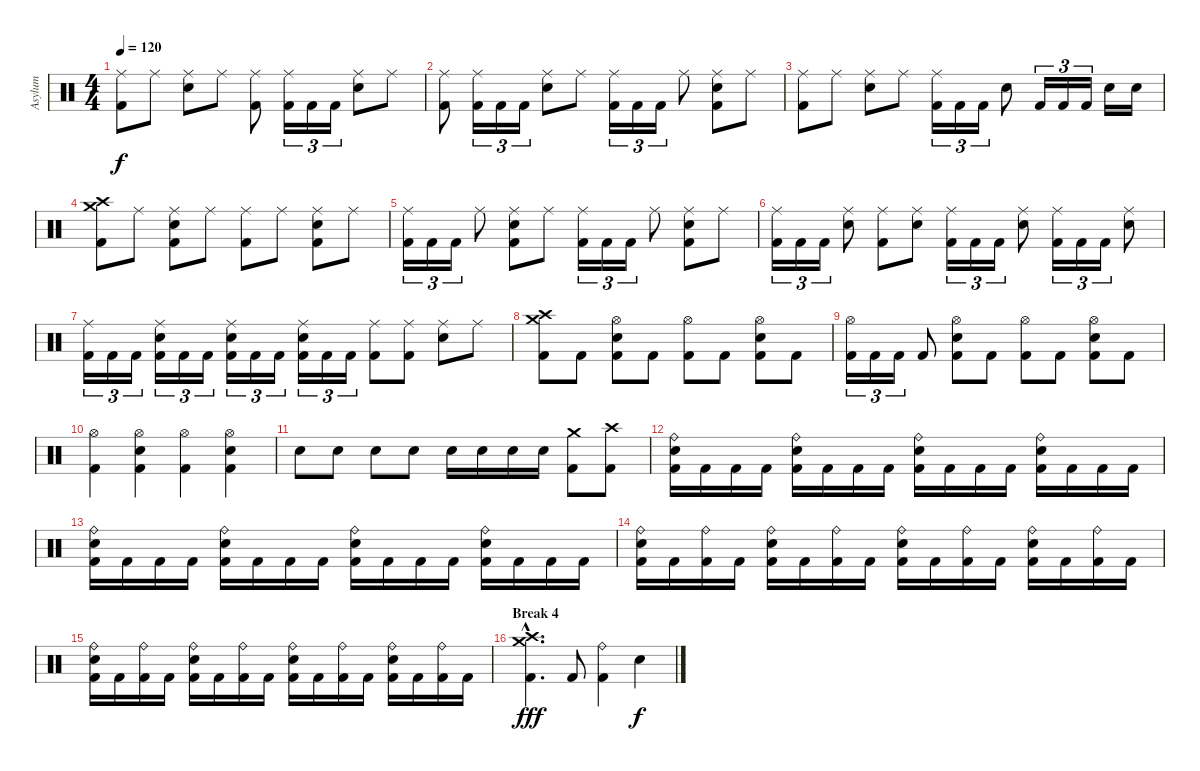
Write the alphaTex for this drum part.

\track ("Asylum" "Asylum") {instrument percussion}
\staff {score}
\articulation defaults
\ts (4 4)
\tempo 120
\clef neutral
\ks c
("Ride (middle)" "Kick (hit) 2").8{dy f} "Ride (middle)".8 ("Ride (middle)" "Electric Snare (hit)").8 "Ride (middle)".8 ("Ride (middle)" "Kick (hit) 2").8 ("Ride (middle)" "Kick (hit) 2").16{tu (3 2)} "Kick (hit) 2".16{tu (3 2)} "Kick (hit) 2".16{tu (3 2)} ("Ride (middle)" "Electric Snare (hit)").8 "Ride (middle)".8 |
("Ride (middle)" "Kick (hit) 2").8 ("Ride (middle)" "Kick (hit) 2").16{tu (3 2)} "Kick (hit) 2".16{tu (3 2)} "Kick (hit) 2".16{tu (3 2)} ("Ride (middle)" "Electric Snare (hit)").8 "Ride (middle)".8 ("Ride (middle)" "Kick (hit) 2").16{tu (3 2)} "Kick (hit) 2".16{tu (3 2)} "Kick (hit) 2".16{tu (3 2)} "Ride (middle)".8 ("Ride (middle)" "Electric Snare (hit)" "Kick (hit) 2").8 "Ride (middle)".8 |
("Ride (middle)" "Kick (hit) 2").8 "Ride (middle)".8 ("Ride (middle)" "Electric Snare (hit)").8 "Ride (middle)".8 ("Ride (middle)" "Kick (hit) 2").16{tu (3 2)} "Kick (hit) 2".16{tu (3 2)} "Kick (hit) 2".16{tu (3 2)} "Electric Snare (hit)".8 "Kick (hit) 2".16{tu (3 2)} "Kick (hit) 2".16{tu (3 2)} "Kick (hit) 2".16{tu (3 2)} "Electric Snare (hit)".16 "Electric Snare (hit)".16 |
("Crash high (hit)" "Crash medium (hit)" "Kick (hit) 2").8 "Ride (middle)".8 ("Ride (middle)" "Electric Snare (hit)" "Kick (hit) 2").8 "Ride (middle)".8 ("Ride (middle)" "Kick (hit) 2").8 "Ride (middle)".8 ("Ride (middle)" "Electric Snare (hit)" "Kick (hit) 2").8 "Ride (middle)".8 |
("Ride (middle)" "Kick (hit) 2").16{tu (3 2)} "Kick (hit) 2".16{tu (3 2)} "Kick (hit) 2".16{tu (3 2)} "Ride (middle)".8 ("Ride (middle)" "Electric Snare (hit)" "Kick (hit) 2").8 "Ride (middle)".8 ("Ride (middle)" "Kick (hit) 2").16{tu (3 2)} "Kick (hit) 2".16{tu (3 2)} "Kick (hit) 2".16{tu (3 2)} "Ride (middle)".8 ("Ride (middle)" "Electric Snare (hit)" "Kick (hit) 2").8 "Ride (middle)".8 |
("Ride (middle)" "Kick (hit) 2").16{tu (3 2)} "Kick (hit) 2".16{tu (3 2)} "Kick (hit) 2".16{tu (3 2)} ("Ride (middle)" "Electric Snare (hit)").8 ("Ride (middle)" "Kick (hit) 2").8 ("Ride (middle)" "Electric Snare (hit)").8 ("Ride (middle)" "Kick (hit) 2").16{tu (3 2)} "Kick (hit) 2".16{tu (3 2)} "Kick (hit) 2".16{tu (3 2)} ("Ride (middle)" "Electric Snare (hit)").8 ("Ride (middle)" "Kick (hit) 2").16{tu (3 2)} "Kick (hit) 2".16{tu (3 2)} "Kick (hit) 2".16{tu (3 2)} ("Ride (middle)" "Electric Snare (hit)").8 |
("Ride (middle)" "Kick (hit) 2").16{tu (3 2)} "Kick (hit) 2".16{tu (3 2)} "Kick (hit) 2".16{tu (3 2)} ("Ride (middle)" "Electric Snare (hit)" "Kick (hit) 2").16{tu (3 2)} "Kick (hit) 2".16{tu (3 2)} "Kick (hit) 2".16{tu (3 2)} ("Ride (middle)" "Electric Snare (hit)" "Kick (hit) 2").16{tu (3 2)} "Kick (hit) 2".16{tu (3 2)} "Kick (hit) 2".16{tu (3 2)} ("Ride (middle)" "Electric Snare (hit)" "Kick (hit) 2").16{tu (3 2)} "Kick (hit) 2".16{tu (3 2)} "Kick (hit) 2".16{tu (3 2)} ("Ride (middle)" "Kick (hit) 2").8 ("Ride (middle)" "Kick (hit) 2").8 ("Ride (middle)" "Electric Snare (hit)").8 "Ride (middle)".8 |
("Crash medium (hit)" "Crash high (hit)" "Kick (hit) 2").8 "Kick (hit) 2".8 ("Hi-Hat (open)" "Electric Snare (hit)" "Kick (hit) 2").8 "Kick (hit) 2".8 ("Hi-Hat (open)" "Kick (hit) 2").8 "Kick (hit) 2".8 ("Hi-Hat (open)" "Electric Snare (hit)" "Kick (hit) 2").8 "Kick (hit) 2".8 |
("Hi-Hat (open)" "Kick (hit) 2").16{tu (3 2)} "Kick (hit) 2".16{tu (3 2)} "Kick (hit) 2".16{tu (3 2)} "Kick (hit) 2".8 ("Hi-Hat (open)" "Electric Snare (hit)" "Kick (hit) 2").8 "Kick (hit) 2".8 ("Hi-Hat (open)" "Kick (hit) 2").8 "Kick (hit) 2".8 ("Hi-Hat (open)" "Electric Snare (hit)" "Kick (hit) 2").8 "Kick (hit) 2".8 |
("Hi-Hat (open)" "Kick (hit) 2").4 ("Hi-Hat (open)" "Electric Snare (hit)" "Kick (hit) 2").4 ("Hi-Hat (open)" "Kick (hit) 2").4 ("Hi-Hat (open)" "Electric Snare (hit)" "Kick (hit) 2").4 |
"Electric Snare (hit)".8 "Electric Snare (hit)".8 "Electric Snare (hit)".8 "Electric Snare (hit)".8 "Electric Snare (hit)".16 "Electric Snare (hit)".16 "Electric Snare (hit)".16 "Electric Snare (hit)".16 ("Crash medium (hit)" "Kick (hit) 2").8 ("Crash high (hit)" "Kick (hit) 2").8 |
("Ride (bell)" "Electric Snare (hit)" "Kick (hit) 2").16 "Kick (hit) 2".16 "Kick (hit) 2".16 "Kick (hit) 2".16 ("Ride (bell)" "Electric Snare (hit)" "Kick (hit) 2").16 "Kick (hit) 2".16 "Kick (hit) 2".16 "Kick (hit) 2".16 ("Ride (bell)" "Electric Snare (hit)" "Kick (hit) 2").16 "Kick (hit) 2".16 "Kick (hit) 2".16 "Kick (hit) 2".16 ("Ride (bell)" "Electric Snare (hit)" "Kick (hit) 2").16 "Kick (hit) 2".16 "Kick (hit) 2".16 "Kick (hit) 2".16 |
("Ride (bell)" "Electric Snare (hit)" "Kick (hit) 2").16 "Kick (hit) 2".16 "Kick (hit) 2".16 "Kick (hit) 2".16 ("Ride (bell)" "Electric Snare (hit)" "Kick (hit) 2").16 "Kick (hit) 2".16 "Kick (hit) 2".16 "Kick (hit) 2".16 ("Ride (bell)" "Electric Snare (hit)" "Kick (hit) 2").16 "Kick (hit) 2".16 "Kick (hit) 2".16 "Kick (hit) 2".16 ("Ride (bell)" "Electric Snare (hit)" "Kick (hit) 2").16 "Kick (hit) 2".16 "Kick (hit) 2".16 "Kick (hit) 2".16 |
("Ride (bell)" "Electric Snare (hit)" "Kick (hit) 2").16 "Kick (hit) 2".16 ("Ride (bell)" "Kick (hit) 2").16 "Kick (hit) 2".16 ("Ride (bell)" "Electric Snare (hit)" "Kick (hit) 2").16 "Kick (hit) 2".16 ("Ride (bell)" "Kick (hit) 2").16 "Kick (hit) 2".16 ("Ride (bell)" "Electric Snare (hit)" "Kick (hit) 2").16 "Kick (hit) 2".16 ("Ride (bell)" "Kick (hit) 2").16 "Kick (hit) 2".16 ("Ride (bell)" "Electric Snare (hit)" "Kick (hit) 2").16 "Kick (hit) 2".16 ("Ride (bell)" "Kick (hit) 2").16 "Kick (hit) 2".16 |
("Ride (bell)" "Electric Snare (hit)" "Kick (hit) 2").16 "Kick (hit) 2".16 ("Ride (bell)" "Kick (hit) 2").16 "Kick (hit) 2".16 ("Ride (bell)" "Electric Snare (hit)" "Kick (hit) 2").16 "Kick (hit) 2".16 ("Ride (bell)" "Kick (hit) 2").16 "Kick (hit) 2".16 ("Ride (bell)" "Electric Snare (hit)" "Kick (hit) 2").16 "Kick (hit) 2".16 ("Ride (bell)" "Kick (hit) 2").16 "Kick (hit) 2".16 ("Ride (bell)" "Electric Snare (hit)" "Kick (hit) 2").16 "Kick (hit) 2".16 ("Ride (bell)" "Kick (hit) 2").16 "Kick (hit) 2".16 |
\section ("" "Break 4")
("Crash high (hit)"{hac} "Crash medium (hit)"{hac} "Kick (hit) 2"{hac}).4{d dy fff} "Kick (hit) 2".8 ("Ride (bell)" "Kick (hit) 2").4 "Electric Snare (hit)".4{dy f}
